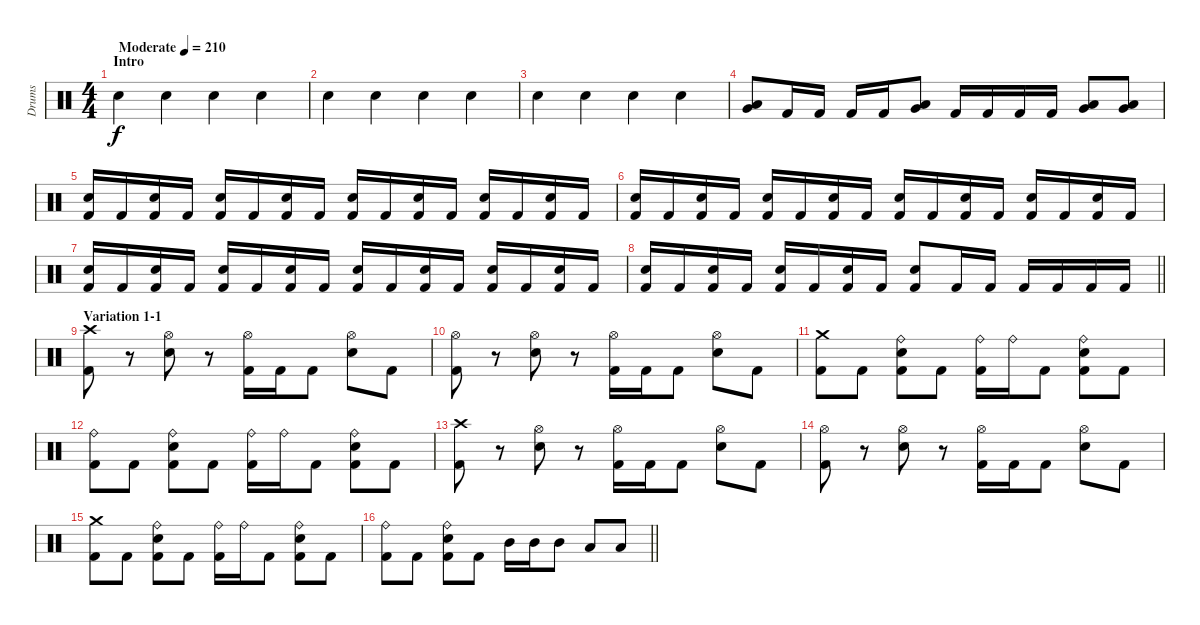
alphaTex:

\track ("Drums" "Drums") {instrument percussion}
\staff {score}
\articulation defaults
\ts (4 4)
\section ("" "Intro")
\tempo (210 "Moderate")
\clef neutral
\ks c "Snare (hit) 2".4{dy f} "Snare (hit) 2".4 "Snare (hit) 2".4 "Snare (hit) 2".4
|
"Snare (hit) 2".4 "Snare (hit) 2".4 "Snare (hit) 2".4 "Snare (hit) 2".4 |
"Snare (hit) 2".4 "Snare (hit) 2".4 "Snare (hit) 2".4 "Snare (hit) 2".4 |
("Low Tom (hit)" "Very Low Tom (hit)").8 "Kick (hit) 2".16 "Kick (hit) 2".16 "Kick (hit) 2".16 "Kick (hit) 2".16 ("Low Tom (hit)" "Very Low Tom (hit)").8 "Kick (hit) 2".16 "Kick (hit) 2".16 "Kick (hit) 2".16 "Kick (hit) 2".16 ("Low Tom (hit)" "Very Low Tom (hit)").8 ("Low Tom (hit)" "Very Low Tom (hit)").8 |
("Snare (hit) 2" "Kick (hit) 2").16 "Kick (hit) 2".16 ("Snare (hit) 2" "Kick (hit) 2").16 "Kick (hit) 2".16 ("Snare (hit) 2" "Kick (hit) 2").16 "Kick (hit) 2".16 ("Snare (hit) 2" "Kick (hit) 2").16 "Kick (hit) 2".16 ("Snare (hit) 2" "Kick (hit) 2").16 "Kick (hit) 2".16 ("Snare (hit) 2" "Kick (hit) 2").16 "Kick (hit) 2".16 ("Snare (hit) 2" "Kick (hit) 2").16 "Kick (hit) 2".16 ("Snare (hit) 2" "Kick (hit) 2").16 "Kick (hit) 2".16 |
("Snare (hit) 2" "Kick (hit) 2").16 "Kick (hit) 2".16 ("Snare (hit) 2" "Kick (hit) 2").16 "Kick (hit) 2".16 ("Snare (hit) 2" "Kick (hit) 2").16 "Kick (hit) 2".16 ("Snare (hit) 2" "Kick (hit) 2").16 "Kick (hit) 2".16 ("Snare (hit) 2" "Kick (hit) 2").16 "Kick (hit) 2".16 ("Snare (hit) 2" "Kick (hit) 2").16 "Kick (hit) 2".16 ("Snare (hit) 2" "Kick (hit) 2").16 "Kick (hit) 2".16 ("Snare (hit) 2" "Kick (hit) 2").16 "Kick (hit) 2".16 |
("Snare (hit) 2" "Kick (hit) 2").16 "Kick (hit) 2".16 ("Snare (hit) 2" "Kick (hit) 2").16 "Kick (hit) 2".16 ("Snare (hit) 2" "Kick (hit) 2").16 "Kick (hit) 2".16 ("Snare (hit) 2" "Kick (hit) 2").16 "Kick (hit) 2".16 ("Snare (hit) 2" "Kick (hit) 2").16 "Kick (hit) 2".16 ("Snare (hit) 2" "Kick (hit) 2").16 "Kick (hit) 2".16 ("Snare (hit) 2" "Kick (hit) 2").16 "Kick (hit) 2".16 ("Snare (hit) 2" "Kick (hit) 2").16 "Kick (hit) 2".16 |
\barLineRight lightlight
("Snare (hit) 2" "Kick (hit) 2").16 "Kick (hit) 2".16 ("Snare (hit) 2" "Kick (hit) 2").16 "Kick (hit) 2".16 ("Snare (hit) 2" "Kick (hit) 2").16 "Kick (hit) 2".16 ("Snare (hit) 2" "Kick (hit) 2").16 "Kick (hit) 2".16 ("Snare (hit) 2" "Kick (hit) 2").8 "Kick (hit) 2".16 "Kick (hit) 2".16 "Kick (hit) 2".16 "Kick (hit) 2".16 "Kick (hit) 2".16 "Kick (hit) 2".16 |
\section ("" "Variation 1-1")
("Crash high (hit)" "Kick (hit) 2").8 r.8 ("Hi-Hat (open)" "Snare (hit) 2").8 r.8 ("Hi-Hat (open)" "Kick (hit) 2").16 "Kick (hit) 2".16 "Kick (hit) 2".8 ("Hi-Hat (open)" "Snare (hit) 2").8 "Kick (hit) 2".8 |
("Hi-Hat (open)" "Kick (hit) 2").8 r.8 ("Hi-Hat (open)" "Snare (hit) 2").8 r.8 ("Hi-Hat (open)" "Kick (hit) 2").16 "Kick (hit) 2".16 "Kick (hit) 2".8 ("Hi-Hat (open)" "Snare (hit) 2").8 "Kick (hit) 2".8 |
("Crash medium (hit)" "Kick (hit) 2").8 "Kick (hit) 2".8 ("Ride (bell)" "Snare (hit) 2" "Kick (hit) 2").8 "Kick (hit) 2".8 ("Ride (bell)" "Kick (hit) 2").16 "Ride (bell)".16 "Kick (hit) 2".8 ("Ride (bell)" "Snare (hit) 2" "Kick (hit) 2").8 "Kick (hit) 2".8 |
("Ride (bell)" "Kick (hit) 2").8 "Kick (hit) 2".8 ("Ride (bell)" "Snare (hit) 2" "Kick (hit) 2").8 "Kick (hit) 2".8 ("Ride (bell)" "Kick (hit) 2").16 "Ride (bell)".16 "Kick (hit) 2".8 ("Ride (bell)" "Snare (hit) 2" "Kick (hit) 2").8 "Kick (hit) 2".8 |
("Crash high (hit)" "Kick (hit) 2").8 r.8 ("Hi-Hat (open)" "Snare (hit) 2").8 r.8 ("Hi-Hat (open)" "Kick (hit) 2").16 "Kick (hit) 2".16 "Kick (hit) 2".8 ("Hi-Hat (open)" "Snare (hit) 2").8 "Kick (hit) 2".8 |
("Hi-Hat (open)" "Kick (hit) 2").8 r.8 ("Hi-Hat (open)" "Snare (hit) 2").8 r.8 ("Hi-Hat (open)" "Kick (hit) 2").16 "Kick (hit) 2".16 "Kick (hit) 2".8 ("Hi-Hat (open)" "Snare (hit) 2").8 "Kick (hit) 2".8 |
("Crash medium (hit)" "Kick (hit) 2").8 "Kick (hit) 2".8 ("Ride (bell)" "Snare (hit) 2" "Kick (hit) 2").8 "Kick (hit) 2".8 ("Ride (bell)" "Kick (hit) 2").16 "Ride (bell)".16 "Kick (hit) 2".8 ("Ride (bell)" "Snare (hit) 2" "Kick (hit) 2").8 "Kick (hit) 2".8 |
\barLineRight lightlight
("Ride (bell)" "Kick (hit) 2").8 "Kick (hit) 2".8 ("Ride (bell)" "Snare (hit) 2" "Kick (hit) 2").8 "Kick (hit) 2".8 "Mid Tom (hit)".16 "Mid Tom (hit)".16 "Mid Tom (hit)".8 "Low Tom (hit)".8 "Low Tom (hit)".8
